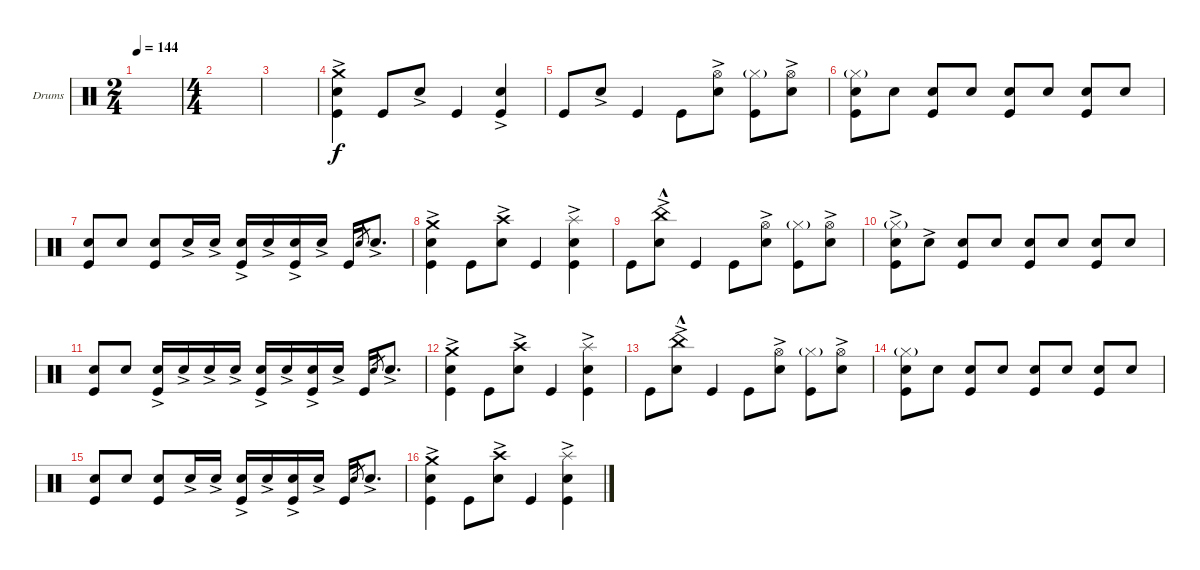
\bracketExtendMode groupsimilarinstruments
\firstSystemTrackNameOrientation horizontal
\otherSystemsTrackNameOrientation horizontal
\track ("Drumkit" "Drums") {instrument percussion}
\staff {score}
\articulation defaults
\ts (2 4)
\tempo 144
\clef neutral
\ks c
|
\ts (4 4)
|
|
\beaming (8 2 2 2 2)
("Crash medium (hit)"{ac} "Snare (hit) 2"{ac} "Kick (hit)").4 "Kick (hit)".8 "Snare (hit) 2"{ac}.8 "Kick (hit)".4 ("Snare (hit) 2"{ac} "Kick (hit)").4 |
"Kick (hit)".8 "Snare (hit) 2"{ac}.8 "Kick (hit)".4 "Kick (hit)".8 ("Hi-Hat (open)" "Snare (hit) 2"{ac}).8 ("Kick (hit)" "Hi-Hat (closed)"{g}).8 ("Hi-Hat (open)" "Snare (hit) 2"{ac}).8 |
("Snare (hit) 2" "Kick (hit)" "Hi-Hat (closed)"{g}).8 "Snare (hit) 2".8 ("Snare (hit) 2" "Kick (hit)").8 "Snare (hit) 2".8 ("Snare (hit) 2" "Kick (hit)").8 "Snare (hit) 2".8 ("Snare (hit) 2" "Kick (hit)").8 "Snare (hit) 2".8 |
("Snare (hit) 2" "Kick (hit)").8 "Snare (hit) 2".8 ("Snare (hit) 2" "Kick (hit)").8 "Snare (hit) 2"{ac}.16 "Snare (hit) 2"{ac}.16 ("Snare (hit) 2"{ac} "Kick (hit)").16 "Snare (hit) 2"{ac}.16 ("Snare (hit) 2"{ac} "Kick (hit)").16 "Snare (hit) 2"{ac}.16 "Kick (hit)".16 "Snare (hit) 2".8{gr} "Snare (hit) 2"{ac}.8{d} |
("Crash medium (hit)"{ac} "Snare (hit) 2"{ac} "Kick (hit)").4 "Kick (hit)".8 ("Crash high (hit)" "Snare (hit) 2"{ac}).8 "Kick (hit)".4 ("Splash (hit)" "Snare (hit) 2"{ac} "Kick (hit)").4 |
"Kick (hit)".8 ("Snare (hit) 2"{ac} "China (hit)"{hac}).8 "Kick (hit)".4 "Kick (hit)".8 ("Hi-Hat (open)" "Snare (hit) 2"{ac}).8 ("Kick (hit)" "Hi-Hat (closed)"{g}).8 ("Hi-Hat (open)" "Snare (hit) 2"{ac}).8 |
("Snare (hit) 2"{ac} "Kick (hit)" "Hi-Hat (closed)"{g}).8 "Snare (hit) 2"{ac}.8 ("Snare (hit) 2" "Kick (hit)").8 "Snare (hit) 2".8 ("Snare (hit) 2" "Kick (hit)").8 "Snare (hit) 2".8 ("Snare (hit) 2" "Kick (hit)").8 "Snare (hit) 2".8 |
("Snare (hit) 2" "Kick (hit)").8 "Snare (hit) 2".8 ("Snare (hit) 2"{ac} "Kick (hit)").16 "Snare (hit) 2"{ac}.16 "Snare (hit) 2"{ac}.16 "Snare (hit) 2"{ac}.16 ("Snare (hit) 2"{ac} "Kick (hit)").16 "Snare (hit) 2"{ac}.16 ("Snare (hit) 2"{ac} "Kick (hit)").16 "Snare (hit) 2"{ac}.16 "Kick (hit)".16 "Snare (hit) 2".8{gr} "Snare (hit) 2"{ac}.8{d} |
("Crash medium (hit)"{ac} "Snare (hit) 2"{ac} "Kick (hit)").4 "Kick (hit)".8 ("Crash high (hit)" "Snare (hit) 2"{ac}).8 "Kick (hit)".4 ("Splash (hit)" "Snare (hit) 2"{ac} "Kick (hit)").4 |
"Kick (hit)".8 ("Snare (hit) 2"{ac} "China (hit)"{hac}).8 "Kick (hit)".4 "Kick (hit)".8 ("Hi-Hat (open)" "Snare (hit) 2"{ac}).8 ("Kick (hit)" "Hi-Hat (closed)"{g}).8 ("Hi-Hat (open)" "Snare (hit) 2"{ac}).8 |
("Snare (hit) 2" "Kick (hit)" "Hi-Hat (closed)"{g}).8 "Snare (hit) 2".8 ("Snare (hit) 2" "Kick (hit)").8 "Snare (hit) 2".8 ("Snare (hit) 2" "Kick (hit)").8 "Snare (hit) 2".8 ("Snare (hit) 2" "Kick (hit)").8 "Snare (hit) 2".8 |
("Snare (hit) 2" "Kick (hit)").8 "Snare (hit) 2".8 ("Snare (hit) 2" "Kick (hit)").8 "Snare (hit) 2"{ac}.16 "Snare (hit) 2"{ac}.16 ("Snare (hit) 2"{ac} "Kick (hit)").16 "Snare (hit) 2"{ac}.16 ("Snare (hit) 2"{ac} "Kick (hit)").16 "Snare (hit) 2"{ac}.16 "Kick (hit)".16 "Snare (hit) 2".8{gr} "Snare (hit) 2"{ac}.8{d} |
("Crash medium (hit)"{ac} "Snare (hit) 2"{ac} "Kick (hit)").4 "Kick (hit)".8 ("Crash high (hit)" "Snare (hit) 2"{ac}).8 "Kick (hit)".4 ("Splash (hit)" "Snare (hit) 2"{ac} "Kick (hit)").4
